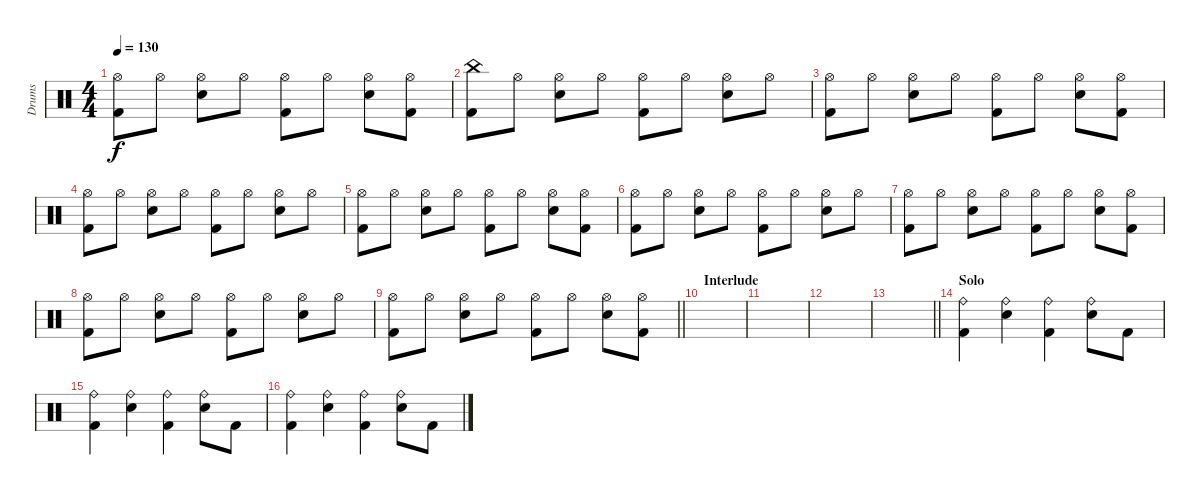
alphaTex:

\track ("Drums" "Drums") {instrument percussion}
\staff {score}
\articulation defaults
\ts (4 4)
\tempo 130
\clef neutral
\ks c
("Hi-Hat (open)" "Kick (hit) 2").8{dy f} "Hi-Hat (open)".8 ("Hi-Hat (open)" "Snare (hit) 2").8 "Hi-Hat (open)".8 ("Hi-Hat (open)" "Kick (hit) 2").8 "Hi-Hat (open)".8 ("Hi-Hat (open)" "Snare (hit) 2").8 ("Hi-Hat (open)" "Kick (hit) 2").8 |
("China (hit)" "Kick (hit) 2").8 "Hi-Hat (open)".8 ("Hi-Hat (open)" "Snare (hit) 2").8 "Hi-Hat (open)".8 ("Hi-Hat (open)" "Kick (hit) 2").8 "Hi-Hat (open)".8 ("Hi-Hat (open)" "Snare (hit) 2").8 "Hi-Hat (open)".8 |
("Hi-Hat (open)" "Kick (hit) 2").8 "Hi-Hat (open)".8 ("Hi-Hat (open)" "Snare (hit) 2").8 "Hi-Hat (open)".8 ("Hi-Hat (open)" "Kick (hit) 2").8 "Hi-Hat (open)".8 ("Hi-Hat (open)" "Snare (hit) 2").8 ("Hi-Hat (open)" "Kick (hit) 2").8 |
("Hi-Hat (open)" "Kick (hit) 2").8 "Hi-Hat (open)".8 ("Hi-Hat (open)" "Snare (hit) 2").8 "Hi-Hat (open)".8 ("Hi-Hat (open)" "Kick (hit) 2").8 "Hi-Hat (open)".8 ("Hi-Hat (open)" "Snare (hit) 2").8 "Hi-Hat (open)".8 |
("Hi-Hat (open)" "Kick (hit) 2").8 "Hi-Hat (open)".8 ("Hi-Hat (open)" "Snare (hit) 2").8 "Hi-Hat (open)".8 ("Hi-Hat (open)" "Kick (hit) 2").8 "Hi-Hat (open)".8 ("Hi-Hat (open)" "Snare (hit) 2").8 ("Hi-Hat (open)" "Kick (hit) 2").8 |
("Hi-Hat (open)" "Kick (hit) 2").8 "Hi-Hat (open)".8 ("Hi-Hat (open)" "Snare (hit) 2").8 "Hi-Hat (open)".8 ("Hi-Hat (open)" "Kick (hit) 2").8 "Hi-Hat (open)".8 ("Hi-Hat (open)" "Snare (hit) 2").8 "Hi-Hat (open)".8 |
("Hi-Hat (open)" "Kick (hit) 2").8 "Hi-Hat (open)".8 ("Hi-Hat (open)" "Snare (hit) 2").8 "Hi-Hat (open)".8 ("Hi-Hat (open)" "Kick (hit) 2").8 "Hi-Hat (open)".8 ("Hi-Hat (open)" "Snare (hit) 2").8 ("Hi-Hat (open)" "Kick (hit) 2").8 |
("Hi-Hat (open)" "Kick (hit) 2").8 "Hi-Hat (open)".8 ("Hi-Hat (open)" "Snare (hit) 2").8 "Hi-Hat (open)".8 ("Hi-Hat (open)" "Kick (hit) 2").8 "Hi-Hat (open)".8 ("Hi-Hat (open)" "Snare (hit) 2").8 "Hi-Hat (open)".8 |
\barLineRight lightlight
("Hi-Hat (open)" "Kick (hit) 2").8 "Hi-Hat (open)".8 ("Hi-Hat (open)" "Snare (hit) 2").8 "Hi-Hat (open)".8 ("Hi-Hat (open)" "Kick (hit) 2").8 "Hi-Hat (open)".8 ("Hi-Hat (open)" "Snare (hit) 2").8 ("Hi-Hat (open)" "Kick (hit) 2").8 |
\section ("" "Interlude")
|
|
|
\barLineRight lightlight
|
\section ("" "Solo")
("Ride (bell)" "Kick (hit) 2").4 ("Ride (bell)" "Snare (hit) 2").4 ("Ride (bell)" "Kick (hit) 2").4 ("Ride (bell)" "Snare (hit) 2").8 "Kick (hit) 2".8 |
("Ride (bell)" "Kick (hit) 2").4 ("Ride (bell)" "Snare (hit) 2").4 ("Ride (bell)" "Kick (hit) 2").4 ("Ride (bell)" "Snare (hit) 2").8 "Kick (hit) 2".8 |
("Ride (bell)" "Kick (hit) 2").4 ("Ride (bell)" "Snare (hit) 2").4 ("Ride (bell)" "Kick (hit) 2").4 ("Ride (bell)" "Snare (hit) 2").8 "Kick (hit) 2".8
